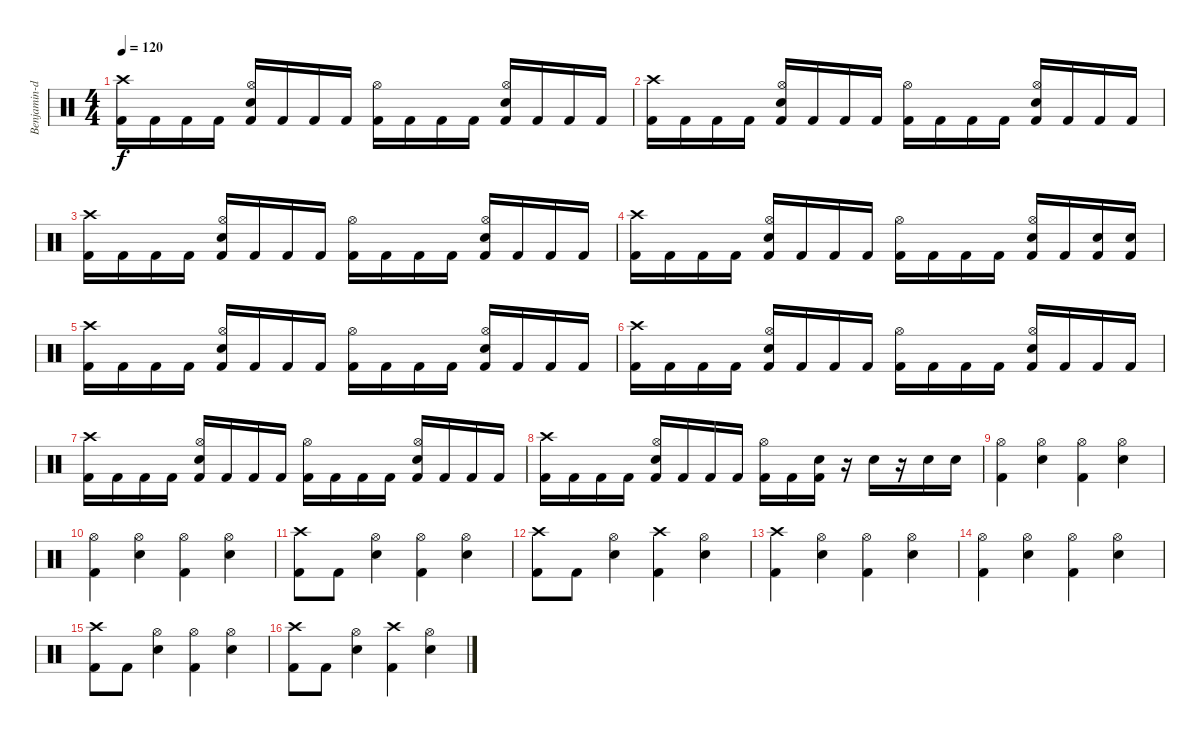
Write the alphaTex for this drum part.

\track ("Benjamin-drums" "Benjamin-d") {instrument percussion}
\staff {score}
\articulation defaults
\ts (4 4)
\tempo 120
\clef neutral
\ks c
("Crash high (hit)" "Kick (hit) 2").16{dy f} "Kick (hit) 2".16 "Kick (hit) 2".16 "Kick (hit) 2".16 ("Hi-Hat (open)" "Snare (hit) 2" "Kick (hit) 2").16 "Kick (hit) 2".16 "Kick (hit) 2".16 "Kick (hit) 2".16 ("Hi-Hat (open)" "Kick (hit) 2").16 "Kick (hit) 2".16 "Kick (hit) 2".16 "Kick (hit) 2".16 ("Hi-Hat (open)" "Snare (hit) 2" "Kick (hit) 2").16 "Kick (hit) 2".16 "Kick (hit) 2".16 "Kick (hit) 2".16 |
("Crash high (hit)" "Kick (hit) 2").16 "Kick (hit) 2".16 "Kick (hit) 2".16 "Kick (hit) 2".16 ("Hi-Hat (open)" "Snare (hit) 2" "Kick (hit) 2").16 "Kick (hit) 2".16 "Kick (hit) 2".16 "Kick (hit) 2".16 ("Hi-Hat (open)" "Kick (hit) 2").16 "Kick (hit) 2".16 "Kick (hit) 2".16 "Kick (hit) 2".16 ("Hi-Hat (open)" "Snare (hit) 2" "Kick (hit) 2").16 "Kick (hit) 2".16 "Kick (hit) 2".16 "Kick (hit) 2".16 |
("Crash high (hit)" "Kick (hit) 2").16 "Kick (hit) 2".16 "Kick (hit) 2".16 "Kick (hit) 2".16 ("Hi-Hat (open)" "Snare (hit) 2" "Kick (hit) 2").16 "Kick (hit) 2".16 "Kick (hit) 2".16 "Kick (hit) 2".16 ("Hi-Hat (open)" "Kick (hit) 2").16 "Kick (hit) 2".16 "Kick (hit) 2".16 "Kick (hit) 2".16 ("Hi-Hat (open)" "Snare (hit) 2" "Kick (hit) 2").16 "Kick (hit) 2".16 "Kick (hit) 2".16 "Kick (hit) 2".16 |
("Crash high (hit)" "Kick (hit) 2").16 "Kick (hit) 2".16 "Kick (hit) 2".16 "Kick (hit) 2".16 ("Hi-Hat (open)" "Snare (hit) 2" "Kick (hit) 2").16 "Kick (hit) 2".16 "Kick (hit) 2".16 "Kick (hit) 2".16 ("Hi-Hat (open)" "Kick (hit) 2").16 "Kick (hit) 2".16 "Kick (hit) 2".16 "Kick (hit) 2".16 ("Hi-Hat (open)" "Snare (hit) 2" "Kick (hit) 2").16 "Kick (hit) 2".16 ("Snare (hit) 2" "Kick (hit) 2").16 ("Snare (hit) 2" "Kick (hit) 2").16 |
("Crash high (hit)" "Kick (hit) 2").16 "Kick (hit) 2".16 "Kick (hit) 2".16 "Kick (hit) 2".16 ("Hi-Hat (open)" "Snare (hit) 2" "Kick (hit) 2").16 "Kick (hit) 2".16 "Kick (hit) 2".16 "Kick (hit) 2".16 ("Hi-Hat (open)" "Kick (hit) 2").16 "Kick (hit) 2".16 "Kick (hit) 2".16 "Kick (hit) 2".16 ("Hi-Hat (open)" "Snare (hit) 2" "Kick (hit) 2").16 "Kick (hit) 2".16 "Kick (hit) 2".16 "Kick (hit) 2".16 |
("Crash high (hit)" "Kick (hit) 2").16 "Kick (hit) 2".16 "Kick (hit) 2".16 "Kick (hit) 2".16 ("Hi-Hat (open)" "Snare (hit) 2" "Kick (hit) 2").16 "Kick (hit) 2".16 "Kick (hit) 2".16 "Kick (hit) 2".16 ("Hi-Hat (open)" "Kick (hit) 2").16 "Kick (hit) 2".16 "Kick (hit) 2".16 "Kick (hit) 2".16 ("Hi-Hat (open)" "Snare (hit) 2" "Kick (hit) 2").16 "Kick (hit) 2".16 "Kick (hit) 2".16 "Kick (hit) 2".16 |
("Crash high (hit)" "Kick (hit) 2").16 "Kick (hit) 2".16 "Kick (hit) 2".16 "Kick (hit) 2".16 ("Hi-Hat (open)" "Snare (hit) 2" "Kick (hit) 2").16 "Kick (hit) 2".16 "Kick (hit) 2".16 "Kick (hit) 2".16 ("Hi-Hat (open)" "Kick (hit) 2").16 "Kick (hit) 2".16 "Kick (hit) 2".16 "Kick (hit) 2".16 ("Hi-Hat (open)" "Snare (hit) 2" "Kick (hit) 2").16 "Kick (hit) 2".16 "Kick (hit) 2".16 "Kick (hit) 2".16 |
("Crash high (hit)" "Kick (hit) 2").16 "Kick (hit) 2".16 "Kick (hit) 2".16 "Kick (hit) 2".16 ("Hi-Hat (open)" "Snare (hit) 2" "Kick (hit) 2").16 "Kick (hit) 2".16 "Kick (hit) 2".16 "Kick (hit) 2".16 ("Hi-Hat (open)" "Kick (hit) 2").16 "Kick (hit) 2".16 ("Snare (hit) 2" "Kick (hit) 2").16 r.16 "Snare (hit) 2".16 r.16 "Snare (hit) 2".16 "Snare (hit) 2".16 |
("Hi-Hat (open)" "Kick (hit) 2").4 ("Hi-Hat (open)" "Snare (hit) 2").4 ("Hi-Hat (open)" "Kick (hit) 2").4 ("Hi-Hat (open)" "Snare (hit) 2").4 |
("Hi-Hat (open)" "Kick (hit) 2").4 ("Hi-Hat (open)" "Snare (hit) 2").4 ("Hi-Hat (open)" "Kick (hit) 2").4 ("Hi-Hat (open)" "Snare (hit) 2").4 |
("Crash high (hit)" "Kick (hit) 2").8 "Kick (hit) 2".8 ("Hi-Hat (open)" "Snare (hit) 2").4 ("Hi-Hat (open)" "Kick (hit) 2").4 ("Hi-Hat (open)" "Snare (hit) 2").4 |
("Crash high (hit)" "Kick (hit) 2").8 "Kick (hit) 2".8 ("Hi-Hat (open)" "Snare (hit) 2").4 ("Crash high (hit)" "Kick (hit) 2").4 ("Hi-Hat (open)" "Snare (hit) 2").4 |
("Crash high (hit)" "Kick (hit) 2").4 ("Hi-Hat (open)" "Snare (hit) 2").4 ("Hi-Hat (open)" "Kick (hit) 2").4 ("Hi-Hat (open)" "Snare (hit) 2").4 |
("Hi-Hat (open)" "Kick (hit) 2").4 ("Hi-Hat (open)" "Snare (hit) 2").4 ("Hi-Hat (open)" "Kick (hit) 2").4 ("Hi-Hat (open)" "Snare (hit) 2").4 |
("Crash high (hit)" "Kick (hit) 2").8 "Kick (hit) 2".8 ("Hi-Hat (open)" "Snare (hit) 2").4 ("Hi-Hat (open)" "Kick (hit) 2").4 ("Hi-Hat (open)" "Snare (hit) 2").4 |
("Crash high (hit)" "Kick (hit) 2").8 "Kick (hit) 2".8 ("Hi-Hat (open)" "Snare (hit) 2").4 ("Crash high (hit)" "Kick (hit) 2").4 ("Hi-Hat (open)" "Snare (hit) 2").4
